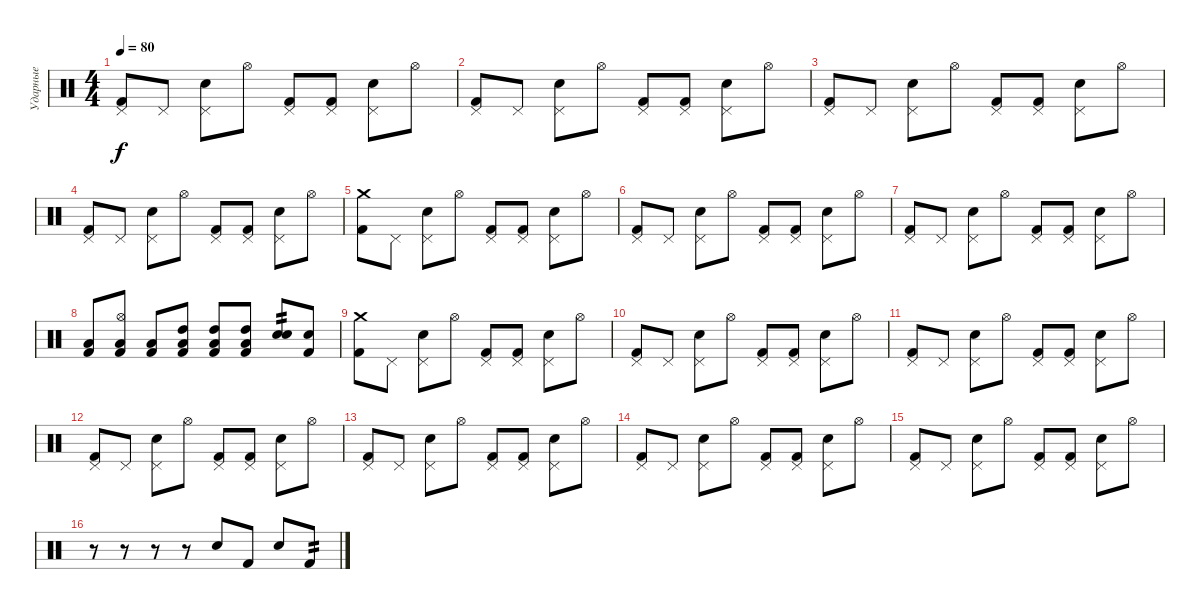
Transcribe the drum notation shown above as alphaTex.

\track ("Ударные" "Ударные") {instrument percussion}
\staff {score}
\articulation defaults
\ts (4 4)
\tempo 80
\clef neutral
\ks c
("Pedal Hi-Hat (hit)" "Kick (hit) 2").8{dy f} "Pedal Hi-Hat (hit)".8 ("Pedal Hi-Hat (hit)" "Electric Snare (hit)").8 "Hi-Hat (open)".8 ("Pedal Hi-Hat (hit)" "Kick (hit) 2").8 ("Pedal Hi-Hat (hit)" "Kick (hit) 2").8 ("Pedal Hi-Hat (hit)" "Electric Snare (hit)").8 "Hi-Hat (open)".8 |
("Pedal Hi-Hat (hit)" "Kick (hit) 2").8 "Pedal Hi-Hat (hit)".8 ("Pedal Hi-Hat (hit)" "Electric Snare (hit)").8 "Hi-Hat (open)".8 ("Pedal Hi-Hat (hit)" "Kick (hit) 2").8 ("Pedal Hi-Hat (hit)" "Kick (hit) 2").8 ("Pedal Hi-Hat (hit)" "Electric Snare (hit)").8 "Hi-Hat (open)".8 |
("Pedal Hi-Hat (hit)" "Kick (hit) 2").8 "Pedal Hi-Hat (hit)".8 ("Pedal Hi-Hat (hit)" "Electric Snare (hit)").8 "Hi-Hat (open)".8 ("Pedal Hi-Hat (hit)" "Kick (hit) 2").8 ("Pedal Hi-Hat (hit)" "Kick (hit) 2").8 ("Pedal Hi-Hat (hit)" "Electric Snare (hit)").8 "Hi-Hat (open)".8 |
("Pedal Hi-Hat (hit)" "Kick (hit) 2").8 "Pedal Hi-Hat (hit)".8 ("Pedal Hi-Hat (hit)" "Electric Snare (hit)").8 "Hi-Hat (open)".8 ("Pedal Hi-Hat (hit)" "Kick (hit) 2").8 ("Pedal Hi-Hat (hit)" "Kick (hit) 2").8 ("Pedal Hi-Hat (hit)" "Electric Snare (hit)").8 "Hi-Hat (open)".8 |
("Crash medium (hit)" "Kick (hit) 2").8 "Pedal Hi-Hat (hit)".8 ("Pedal Hi-Hat (hit)" "Electric Snare (hit)").8 "Hi-Hat (open)".8 ("Pedal Hi-Hat (hit)" "Kick (hit) 2").8 ("Pedal Hi-Hat (hit)" "Kick (hit) 2").8 ("Pedal Hi-Hat (hit)" "Electric Snare (hit)").8 "Hi-Hat (open)".8 |
("Pedal Hi-Hat (hit)" "Kick (hit) 2").8 "Pedal Hi-Hat (hit)".8 ("Pedal Hi-Hat (hit)" "Electric Snare (hit)").8 "Hi-Hat (open)".8 ("Pedal Hi-Hat (hit)" "Kick (hit) 2").8 ("Pedal Hi-Hat (hit)" "Kick (hit) 2").8 ("Pedal Hi-Hat (hit)" "Electric Snare (hit)").8 "Hi-Hat (open)".8 |
("Pedal Hi-Hat (hit)" "Kick (hit) 2").8 "Pedal Hi-Hat (hit)".8 ("Pedal Hi-Hat (hit)" "Electric Snare (hit)").8 "Hi-Hat (open)".8 ("Pedal Hi-Hat (hit)" "Kick (hit) 2").8 ("Pedal Hi-Hat (hit)" "Kick (hit) 2").8 ("Pedal Hi-Hat (hit)" "Electric Snare (hit)").8 "Hi-Hat (open)".8 |
("Low Tom (hit)" "Kick (hit) 2").8 ("Hi-Hat (open)" "Low Tom (hit)" "Kick (hit) 2").8 ("Low Tom (hit)" "Kick (hit) 2").8 ("Low Tom (hit)" "High Tom (hit)" "Kick (hit) 2").8 ("Low Tom (hit)" "High Tom (hit)" "Kick (hit) 2").8 ("Low Tom (hit)" "High Tom (hit)" "Kick (hit) 2").8 ("Electric Snare (hit)" "Electric Snare (hit)").8{tp 2} ("Electric Snare (hit)" "Kick (hit) 2").8 |
("Crash medium (hit)" "Kick (hit) 2").8 "Pedal Hi-Hat (hit)".8 ("Pedal Hi-Hat (hit)" "Electric Snare (hit)").8 "Hi-Hat (open)".8 ("Pedal Hi-Hat (hit)" "Kick (hit) 2").8 ("Pedal Hi-Hat (hit)" "Kick (hit) 2").8 ("Pedal Hi-Hat (hit)" "Electric Snare (hit)").8 "Hi-Hat (open)".8 |
("Pedal Hi-Hat (hit)" "Kick (hit) 2").8 "Pedal Hi-Hat (hit)".8 ("Pedal Hi-Hat (hit)" "Electric Snare (hit)").8 "Hi-Hat (open)".8 ("Pedal Hi-Hat (hit)" "Kick (hit) 2").8 ("Pedal Hi-Hat (hit)" "Kick (hit) 2").8 ("Pedal Hi-Hat (hit)" "Electric Snare (hit)").8 "Hi-Hat (open)".8 |
("Pedal Hi-Hat (hit)" "Kick (hit) 2").8 "Pedal Hi-Hat (hit)".8 ("Pedal Hi-Hat (hit)" "Electric Snare (hit)").8 "Hi-Hat (open)".8 ("Pedal Hi-Hat (hit)" "Kick (hit) 2").8 ("Pedal Hi-Hat (hit)" "Kick (hit) 2").8 ("Pedal Hi-Hat (hit)" "Electric Snare (hit)").8 "Hi-Hat (open)".8 |
("Pedal Hi-Hat (hit)" "Kick (hit) 2").8 "Pedal Hi-Hat (hit)".8 ("Pedal Hi-Hat (hit)" "Electric Snare (hit)").8 "Hi-Hat (open)".8 ("Pedal Hi-Hat (hit)" "Kick (hit) 2").8 ("Pedal Hi-Hat (hit)" "Kick (hit) 2").8 ("Pedal Hi-Hat (hit)" "Electric Snare (hit)").8 "Hi-Hat (open)".8 |
("Pedal Hi-Hat (hit)" "Kick (hit) 2").8 "Pedal Hi-Hat (hit)".8 ("Pedal Hi-Hat (hit)" "Electric Snare (hit)").8 "Hi-Hat (open)".8 ("Pedal Hi-Hat (hit)" "Kick (hit) 2").8 ("Pedal Hi-Hat (hit)" "Kick (hit) 2").8 ("Pedal Hi-Hat (hit)" "Electric Snare (hit)").8 "Hi-Hat (open)".8 |
("Pedal Hi-Hat (hit)" "Kick (hit) 2").8 "Pedal Hi-Hat (hit)".8 ("Pedal Hi-Hat (hit)" "Electric Snare (hit)").8 "Hi-Hat (open)".8 ("Pedal Hi-Hat (hit)" "Kick (hit) 2").8 ("Pedal Hi-Hat (hit)" "Kick (hit) 2").8 ("Pedal Hi-Hat (hit)" "Electric Snare (hit)").8 "Hi-Hat (open)".8 |
("Pedal Hi-Hat (hit)" "Kick (hit) 2").8 "Pedal Hi-Hat (hit)".8 ("Pedal Hi-Hat (hit)" "Electric Snare (hit)").8 "Hi-Hat (open)".8 ("Pedal Hi-Hat (hit)" "Kick (hit) 2").8 ("Pedal Hi-Hat (hit)" "Kick (hit) 2").8 ("Pedal Hi-Hat (hit)" "Electric Snare (hit)").8 "Hi-Hat (open)".8 |
r.8 r.8 r.8 r.8 "Electric Snare (hit)".8 "Kick (hit) 2".8 "Electric Snare (hit)".8 "Kick (hit) 2".8{tp 2}
